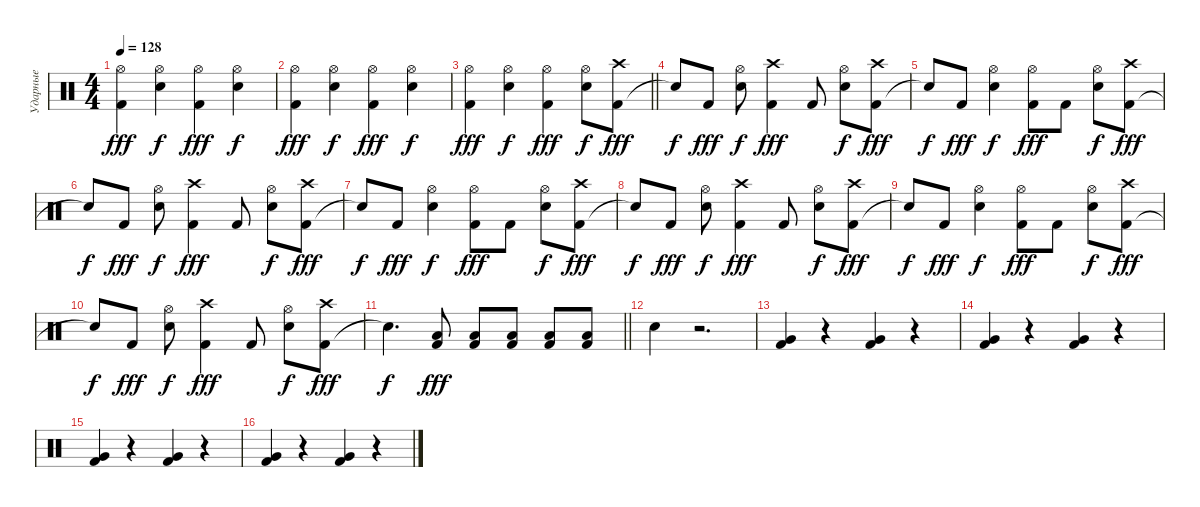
\track ("Ударные" "Ударные") {instrument percussion}
\staff {score}
\articulation defaults
\ts (4 4)
\tempo 128
\clef neutral
\ks c
("Kick (hit) 2" "Hi-Hat (open)").4{dy fff} ("Snare (hit) 2" "Hi-Hat (open)").4{dy f} ("Kick (hit) 2" "Hi-Hat (open)").4{dy fff} ("Snare (hit) 2" "Hi-Hat (open)").4{dy f} |
("Kick (hit) 2" "Hi-Hat (open)").4{dy fff} ("Snare (hit) 2" "Hi-Hat (open)").4{dy f} ("Kick (hit) 2" "Hi-Hat (open)").4{dy fff} ("Snare (hit) 2" "Hi-Hat (open)").4{dy f} |
\barLineRight lightlight
("Kick (hit) 2" "Hi-Hat (open)").4{dy fff} ("Snare (hit) 2" "Hi-Hat (open)").4{dy f} ("Kick (hit) 2" "Hi-Hat (open)").4{dy fff} ("Snare (hit) 2" "Hi-Hat (open)").8{dy f} ("Kick (hit) 2" "Crash high (hit)").8{dy fff} |
"Snare (hit)"{t}.8{dy f} "Kick (hit) 2".8{dy fff} ("Snare (hit) 2" "Hi-Hat (open)").8{dy f} ("Kick (hit) 2" "Crash high (hit)").4{dy fff} "Kick (hit) 2".8 ("Snare (hit) 2" "Hi-Hat (open)").8{dy f} ("Kick (hit) 2" "Crash high (hit)").8{dy fff} |
"Snare (hit)"{t}.8{dy f} "Kick (hit) 2".8{dy fff} ("Snare (hit) 2" "Hi-Hat (open)").4{dy f} ("Kick (hit) 2" "Hi-Hat (open)").8{dy fff} "Kick (hit) 2".8 ("Snare (hit) 2" "Hi-Hat (open)").8{dy f} ("Kick (hit) 2" "Crash high (hit)").8{dy fff} |
"Snare (hit)"{t}.8{dy f} "Kick (hit) 2".8{dy fff} ("Snare (hit) 2" "Hi-Hat (open)").8{dy f} ("Kick (hit) 2" "Crash high (hit)").4{dy fff} "Kick (hit) 2".8 ("Snare (hit) 2" "Hi-Hat (open)").8{dy f} ("Kick (hit) 2" "Crash high (hit)").8{dy fff} |
"Snare (hit)"{t}.8{dy f} "Kick (hit) 2".8{dy fff} ("Snare (hit) 2" "Hi-Hat (open)").4{dy f} ("Kick (hit) 2" "Hi-Hat (open)").8{dy fff} "Kick (hit) 2".8 ("Snare (hit) 2" "Hi-Hat (open)").8{dy f} ("Kick (hit) 2" "Crash high (hit)").8{dy fff} |
"Snare (hit)"{t}.8{dy f} "Kick (hit) 2".8{dy fff} ("Snare (hit) 2" "Hi-Hat (open)").8{dy f} ("Kick (hit) 2" "Crash high (hit)").4{dy fff} "Kick (hit) 2".8 ("Snare (hit) 2" "Hi-Hat (open)").8{dy f} ("Kick (hit) 2" "Crash high (hit)").8{dy fff} |
"Snare (hit)"{t}.8{dy f} "Kick (hit) 2".8{dy fff} ("Snare (hit) 2" "Hi-Hat (open)").4{dy f} ("Kick (hit) 2" "Hi-Hat (open)").8{dy fff} "Kick (hit) 2".8 ("Snare (hit) 2" "Hi-Hat (open)").8{dy f} ("Kick (hit) 2" "Crash high (hit)").8{dy fff} |
"Snare (hit)"{t}.8{dy f} "Kick (hit) 2".8{dy fff} ("Snare (hit) 2" "Hi-Hat (open)").8{dy f} ("Kick (hit) 2" "Crash high (hit)").4{dy fff} "Kick (hit) 2".8 ("Snare (hit) 2" "Hi-Hat (open)").8{dy f} ("Kick (hit) 2" "Crash high (hit)").8{dy fff} |
\barLineRight lightlight "Snare (hit)"{t}.4{d dy f}
("Kick (hit) 2" "Low Floor Tom (hit)").8{dy fff} ("Kick (hit) 2" "Low Floor Tom (hit)").8 ("Kick (hit) 2" "Low Floor Tom (hit)").8 ("Kick (hit) 2" "Low Floor Tom (hit)").8 ("Kick (hit) 2" "Low Floor Tom (hit)").8 |
"Snare (hit) 2".4 r.2{d} |
("Kick (hit) 2" "Very Low Tom (hit)").4 r.4 ("Kick (hit) 2" "Very Low Tom (hit)").4 r.4 |
("Kick (hit) 2" "Very Low Tom (hit)").4 r.4 ("Kick (hit) 2" "Very Low Tom (hit)").4 r.4 |
("Kick (hit) 2" "Very Low Tom (hit)").4 r.4 ("Kick (hit) 2" "Very Low Tom (hit)").4 r.4 |
("Kick (hit) 2" "Very Low Tom (hit)").4 r.4 ("Kick (hit) 2" "Very Low Tom (hit)").4 r.4
